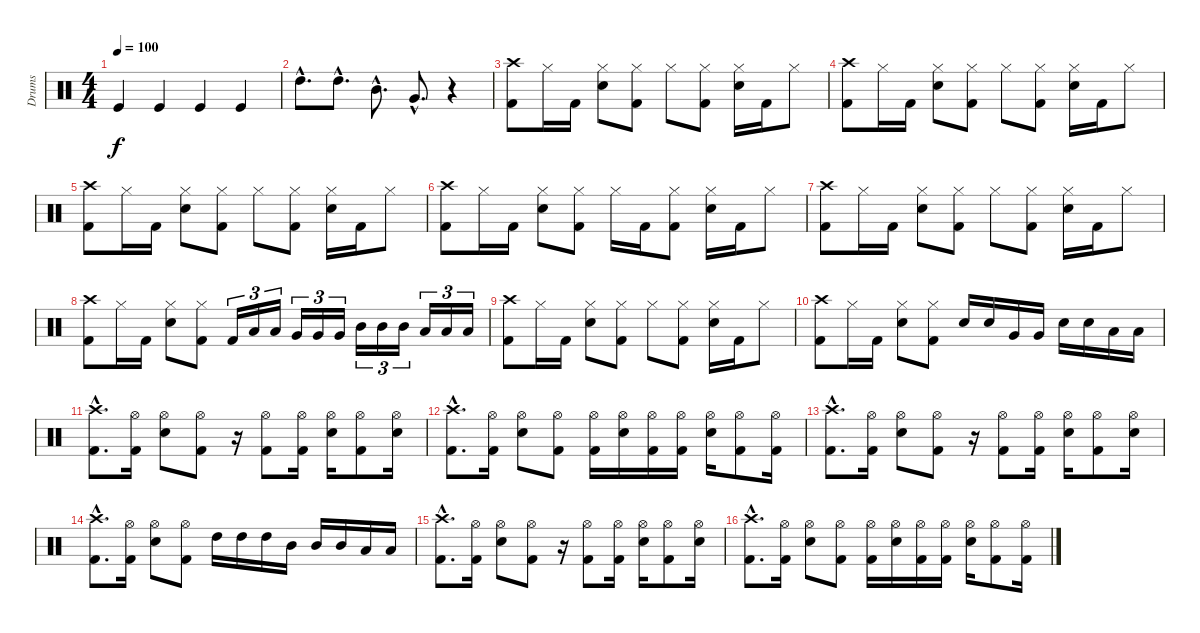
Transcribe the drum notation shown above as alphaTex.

\track ("Drums" "Drums") {instrument percussion}
\staff {score}
\articulation defaults
\ts (4 4)
\tempo 100
\clef neutral
\ks c "Kick (hit)".4{dy f} "Kick (hit)".4 "Kick (hit)".4 "Kick (hit)".4
|
"High Tom (hit)"{hac}.8{d} "High Tom (hit)"{hac}.8{d} "Mid Tom (hit)"{hac}.8{d} "Very Low Tom (hit)"{hac}.8{d} r.4 |
("Crash high (hit)" "Kick (hit) 2").8 "Hi-Hat (closed)".16 "Kick (hit) 2".16 ("Hi-Hat (closed)" "Electric Snare (hit)").8 ("Hi-Hat (closed)" "Kick (hit) 2").8 "Hi-Hat (closed)".8 ("Hi-Hat (closed)" "Kick (hit) 2").8 ("Hi-Hat (closed)" "Electric Snare (hit)").16 "Kick (hit) 2".16 "Hi-Hat (closed)".8 |
("Crash high (hit)" "Kick (hit) 2").8 "Hi-Hat (closed)".16 "Kick (hit) 2".16 ("Hi-Hat (closed)" "Electric Snare (hit)").8 ("Hi-Hat (closed)" "Kick (hit) 2").8 "Hi-Hat (closed)".8 ("Hi-Hat (closed)" "Kick (hit) 2").8 ("Hi-Hat (closed)" "Electric Snare (hit)").16 "Kick (hit) 2".16 "Hi-Hat (closed)".8 |
("Crash high (hit)" "Kick (hit) 2").8 "Hi-Hat (closed)".16 "Kick (hit) 2".16 ("Hi-Hat (closed)" "Electric Snare (hit)").8 ("Hi-Hat (closed)" "Kick (hit) 2").8 "Hi-Hat (closed)".8 ("Hi-Hat (closed)" "Kick (hit) 2").8 ("Hi-Hat (closed)" "Electric Snare (hit)").16 "Kick (hit) 2".16 "Hi-Hat (closed)".8 |
("Crash high (hit)" "Kick (hit) 2").8 "Hi-Hat (closed)".16 "Kick (hit) 2".16 ("Hi-Hat (closed)" "Electric Snare (hit)").8 ("Hi-Hat (closed)" "Kick (hit) 2").8 "Hi-Hat (closed)".16 "Kick (hit) 2".16 ("Hi-Hat (closed)" "Kick (hit) 2").8 ("Hi-Hat (closed)" "Electric Snare (hit)").16 "Kick (hit) 2".16 "Hi-Hat (closed)".8 |
("Crash high (hit)" "Kick (hit) 2").8 "Hi-Hat (closed)".16 "Kick (hit) 2".16 ("Hi-Hat (closed)" "Electric Snare (hit)").8 ("Hi-Hat (closed)" "Kick (hit) 2").8 "Hi-Hat (closed)".8 ("Hi-Hat (closed)" "Kick (hit) 2").8 ("Hi-Hat (closed)" "Electric Snare (hit)").16 "Kick (hit) 2".16 "Hi-Hat (closed)".8 |
("Crash high (hit)" "Kick (hit) 2").8 "Hi-Hat (closed)".16 "Kick (hit) 2".16 ("Hi-Hat (closed)" "Electric Snare (hit)").8 ("Hi-Hat (closed)" "Kick (hit) 2").8 "Kick (hit) 2".16{tu (3 2)} "Low Tom (hit)".16{tu (3 2)} "Low Tom (hit)".16{tu (3 2)} "Very Low Tom (hit)".16{tu (3 2)} "Very Low Tom (hit)".16{tu (3 2)} "Very Low Tom (hit)".16{tu (3 2)} "Mid Tom (hit)".16{tu (3 2)} "Mid Tom (hit)".16{tu (3 2)} "Mid Tom (hit)".16{tu (3 2)} "Low Tom (hit)".16{tu (3 2)} "Low Tom (hit)".16{tu (3 2)} "Low Tom (hit)".16{tu (3 2)} |
("Crash high (hit)" "Kick (hit) 2").8 "Hi-Hat (closed)".16 "Kick (hit) 2".16 ("Hi-Hat (closed)" "Electric Snare (hit)").8 ("Hi-Hat (closed)" "Kick (hit) 2").8 "Hi-Hat (closed)".8 ("Hi-Hat (closed)" "Kick (hit) 2").8 ("Hi-Hat (closed)" "Electric Snare (hit)").16 "Kick (hit) 2".16 "Hi-Hat (closed)".8 |
("Crash high (hit)" "Kick (hit) 2").8 "Hi-Hat (closed)".16 "Kick (hit) 2".16 ("Hi-Hat (closed)" "Electric Snare (hit)").8 ("Hi-Hat (closed)" "Kick (hit) 2").8 "Electric Snare (hit)".16 "Electric Snare (hit)".16 "Very Low Tom (hit)".16 "Very Low Tom (hit)".16 "Electric Snare (hit)".16 "Electric Snare (hit)".16 "Low Floor Tom (hit)".16 "Low Floor Tom (hit)".16 |
("Crash high (hit)"{hac} "Kick (hit) 2"{hac}).8{d} ("Hi-Hat (open)" "Kick (hit) 2").16 ("Hi-Hat (open)" "Electric Snare (hit)").8 ("Hi-Hat (open)" "Kick (hit) 2").8 r.16 ("Hi-Hat (open)" "Kick (hit) 2").8 ("Hi-Hat (open)" "Kick (hit) 2").16 ("Hi-Hat (open)" "Electric Snare (hit)").16 ("Hi-Hat (open)" "Kick (hit) 2").8 ("Hi-Hat (open)" "Electric Snare (hit)").16 |
("Crash high (hit)"{hac} "Kick (hit) 2"{hac}).8{d} ("Hi-Hat (open)" "Kick (hit) 2").16 ("Hi-Hat (open)" "Electric Snare (hit)").8 ("Hi-Hat (open)" "Kick (hit) 2").8 ("Hi-Hat (open)" "Kick (hit) 2").16 ("Hi-Hat (open)" "Electric Snare (hit)").16 ("Hi-Hat (open)" "Kick (hit) 2").16 ("Hi-Hat (open)" "Kick (hit) 2").16 ("Hi-Hat (open)" "Electric Snare (hit)").16 ("Hi-Hat (open)" "Kick (hit) 2").8 ("Hi-Hat (open)" "Kick (hit) 2").16 |
("Crash high (hit)"{hac} "Kick (hit) 2"{hac}).8{d} ("Hi-Hat (open)" "Kick (hit) 2").16 ("Hi-Hat (open)" "Electric Snare (hit)").8 ("Hi-Hat (open)" "Kick (hit) 2").8 r.16 ("Hi-Hat (open)" "Kick (hit) 2").8 ("Hi-Hat (open)" "Kick (hit) 2").16 ("Hi-Hat (open)" "Electric Snare (hit)").16 ("Hi-Hat (open)" "Kick (hit) 2").8 ("Hi-Hat (open)" "Electric Snare (hit)").16 |
("Crash high (hit)"{hac} "Kick (hit) 2"{hac}).8{d} ("Hi-Hat (open)" "Kick (hit) 2").16 ("Hi-Hat (open)" "Electric Snare (hit)").8 ("Hi-Hat (open)" "Kick (hit) 2").8 "High Tom (hit)".16 "High Tom (hit)".16 "High Tom (hit)".16 "Mid Tom (hit)".16 "Mid Tom (hit)".16 "Mid Tom (hit)".16 "Low Tom (hit)".16 "Low Tom (hit)".16 |
("Crash high (hit)"{hac} "Kick (hit) 2"{hac}).8{d} ("Hi-Hat (open)" "Kick (hit) 2").16 ("Hi-Hat (open)" "Electric Snare (hit)").8 ("Hi-Hat (open)" "Kick (hit) 2").8 r.16 ("Hi-Hat (open)" "Kick (hit) 2").8 ("Hi-Hat (open)" "Kick (hit) 2").16 ("Hi-Hat (open)" "Electric Snare (hit)").16 ("Hi-Hat (open)" "Kick (hit) 2").8 ("Hi-Hat (open)" "Electric Snare (hit)").16 |
("Crash high (hit)"{hac} "Kick (hit) 2"{hac}).8{d} ("Hi-Hat (open)" "Kick (hit) 2").16 ("Hi-Hat (open)" "Electric Snare (hit)").8 ("Hi-Hat (open)" "Kick (hit) 2").8 ("Hi-Hat (open)" "Kick (hit) 2").16 ("Hi-Hat (open)" "Electric Snare (hit)").16 ("Hi-Hat (open)" "Kick (hit) 2").16 ("Hi-Hat (open)" "Kick (hit) 2").16 ("Hi-Hat (open)" "Electric Snare (hit)").16 ("Hi-Hat (open)" "Kick (hit) 2").8 ("Hi-Hat (open)" "Kick (hit) 2").16
